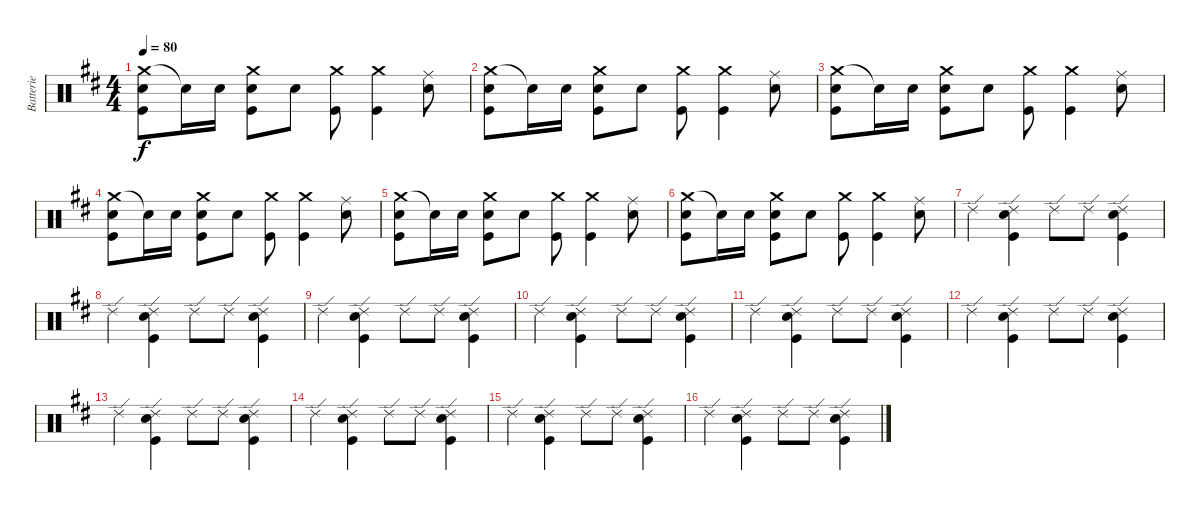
\track ("Batterie" "Batterie") {instrument percussion}
\staff {score}
\articulation defaults
\ts (4 4)
\tempo 80
\clef neutral
\ks d
("Crash medium (hit)" "Electric Snare (hit)" "Kick (hit)").8{dy f} "Electric Snare (hit)"{t}.16 "Electric Snare (hit)".16 ("Crash medium (hit)" "Electric Snare (hit)" "Kick (hit)").8 "Electric Snare (hit)".8 ("Crash medium (hit)" "Kick (hit)").8 ("Crash medium (hit)" "Kick (hit)").4 ("Ride (middle)" "Electric Snare (hit)").8 |
("Crash medium (hit)" "Electric Snare (hit)" "Kick (hit)").8 "Electric Snare (hit)"{t}.16 "Electric Snare (hit)".16 ("Crash medium (hit)" "Electric Snare (hit)" "Kick (hit)").8 "Electric Snare (hit)".8 ("Crash medium (hit)" "Kick (hit)").8 ("Crash medium (hit)" "Kick (hit)").4 ("Ride (middle)" "Electric Snare (hit)").8 |
("Crash medium (hit)" "Electric Snare (hit)" "Kick (hit)").8 "Electric Snare (hit)"{t}.16 "Electric Snare (hit)".16 ("Crash medium (hit)" "Electric Snare (hit)" "Kick (hit)").8 "Electric Snare (hit)".8 ("Crash medium (hit)" "Kick (hit)").8 ("Crash medium (hit)" "Kick (hit)").4 ("Ride (middle)" "Electric Snare (hit)").8 |
("Crash medium (hit)" "Electric Snare (hit)" "Kick (hit)").8 "Electric Snare (hit)"{t}.16 "Electric Snare (hit)".16 ("Crash medium (hit)" "Electric Snare (hit)" "Kick (hit)").8 "Electric Snare (hit)".8 ("Crash medium (hit)" "Kick (hit)").8 ("Crash medium (hit)" "Kick (hit)").4 ("Ride (middle)" "Electric Snare (hit)").8 |
("Crash medium (hit)" "Electric Snare (hit)" "Kick (hit)").8 "Electric Snare (hit)"{t}.16 "Electric Snare (hit)".16 ("Crash medium (hit)" "Electric Snare (hit)" "Kick (hit)").8 "Electric Snare (hit)".8 ("Crash medium (hit)" "Kick (hit)").8 ("Crash medium (hit)" "Kick (hit)").4 ("Ride (middle)" "Electric Snare (hit)").8 |
("Crash medium (hit)" "Electric Snare (hit)" "Kick (hit)").8 "Electric Snare (hit)"{t}.16 "Electric Snare (hit)".16 ("Crash medium (hit)" "Electric Snare (hit)" "Kick (hit)").8 "Electric Snare (hit)".8 ("Crash medium (hit)" "Kick (hit)").8 ("Crash medium (hit)" "Kick (hit)").4 ("Ride (middle)" "Electric Snare (hit)").8 |
"Ride (edge) 2".4 ("Ride (edge) 2" "Electric Snare (hit)" "Kick (hit)").4 "Ride (edge) 2".8 "Ride (edge) 2".8 ("Ride (edge) 2" "Electric Snare (hit)" "Kick (hit)").4 |
"Ride (edge) 2".4 ("Ride (edge) 2" "Electric Snare (hit)" "Kick (hit)").4 "Ride (edge) 2".8 "Ride (edge) 2".8 ("Ride (edge) 2" "Electric Snare (hit)" "Kick (hit)").4 |
"Ride (edge) 2".4 ("Ride (edge) 2" "Electric Snare (hit)" "Kick (hit)").4 "Ride (edge) 2".8 "Ride (edge) 2".8 ("Ride (edge) 2" "Electric Snare (hit)" "Kick (hit)").4 |
"Ride (edge) 2".4 ("Ride (edge) 2" "Electric Snare (hit)" "Kick (hit)").4 "Ride (edge) 2".8 "Ride (edge) 2".8 ("Ride (edge) 2" "Electric Snare (hit)" "Kick (hit)").4 |
"Ride (edge) 2".4 ("Ride (edge) 2" "Electric Snare (hit)" "Kick (hit)").4 "Ride (edge) 2".8 "Ride (edge) 2".8 ("Ride (edge) 2" "Electric Snare (hit)" "Kick (hit)").4 |
"Ride (edge) 2".4 ("Ride (edge) 2" "Electric Snare (hit)" "Kick (hit)").4 "Ride (edge) 2".8 "Ride (edge) 2".8 ("Ride (edge) 2" "Electric Snare (hit)" "Kick (hit)").4 |
"Ride (edge) 2".4 ("Ride (edge) 2" "Electric Snare (hit)" "Kick (hit)").4 "Ride (edge) 2".8 "Ride (edge) 2".8 ("Ride (edge) 2" "Electric Snare (hit)" "Kick (hit)").4 |
"Ride (edge) 2".4 ("Ride (edge) 2" "Electric Snare (hit)" "Kick (hit)").4 "Ride (edge) 2".8 "Ride (edge) 2".8 ("Ride (edge) 2" "Electric Snare (hit)" "Kick (hit)").4 |
"Ride (edge) 2".4 ("Ride (edge) 2" "Electric Snare (hit)" "Kick (hit)").4 "Ride (edge) 2".8 "Ride (edge) 2".8 ("Ride (edge) 2" "Electric Snare (hit)" "Kick (hit)").4 |
"Ride (edge) 2".4 ("Ride (edge) 2" "Electric Snare (hit)" "Kick (hit)").4 "Ride (edge) 2".8 "Ride (edge) 2".8 ("Ride (edge) 2" "Electric Snare (hit)" "Kick (hit)").4
